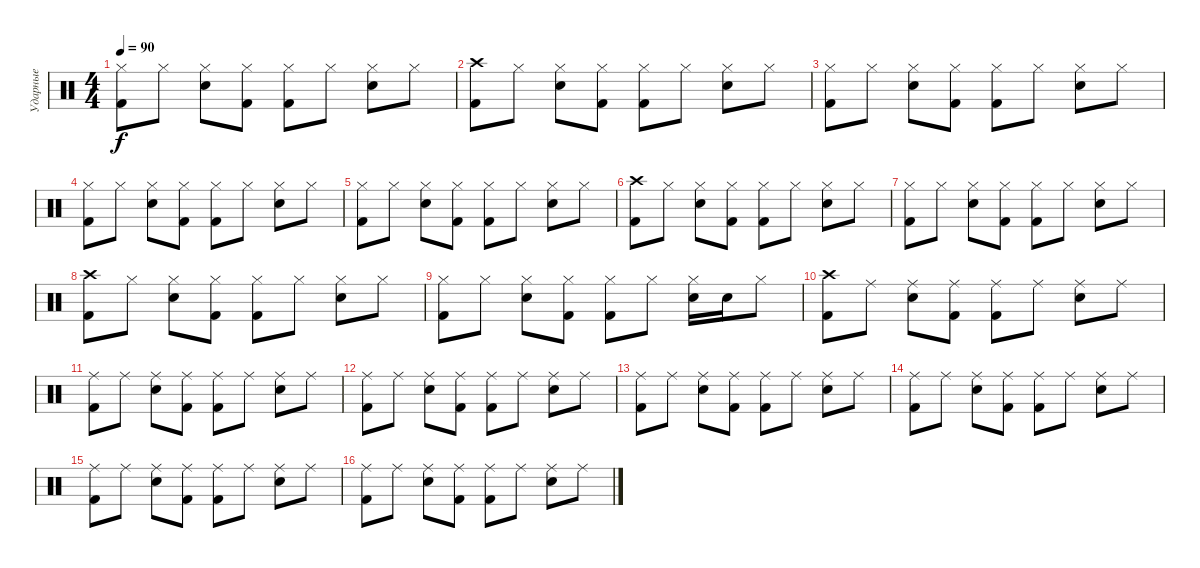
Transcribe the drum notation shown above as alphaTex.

\track ("Ударные" "Ударные") {instrument percussion}
\staff {score}
\articulation defaults
\ts (4 4)
\tempo 90
\clef neutral
\ks c
("Hi-Hat (closed)" "Kick (hit) 2").8{dy f} "Hi-Hat (closed)".8 ("Hi-Hat (closed)" "Snare (hit) 2").8 ("Hi-Hat (closed)" "Kick (hit) 2").8 ("Hi-Hat (closed)" "Kick (hit) 2").8 "Hi-Hat (closed)".8 ("Hi-Hat (closed)" "Snare (hit) 2").8 "Hi-Hat (closed)".8 |
("Crash high (hit)" "Kick (hit) 2").8 "Hi-Hat (closed)".8 ("Hi-Hat (closed)" "Snare (hit) 2").8 ("Hi-Hat (closed)" "Kick (hit) 2").8 ("Hi-Hat (closed)" "Kick (hit) 2").8 "Hi-Hat (closed)".8 ("Hi-Hat (closed)" "Snare (hit) 2").8 "Hi-Hat (closed)".8 |
("Hi-Hat (closed)" "Kick (hit) 2").8 "Hi-Hat (closed)".8 ("Hi-Hat (closed)" "Snare (hit) 2").8 ("Hi-Hat (closed)" "Kick (hit) 2").8 ("Hi-Hat (closed)" "Kick (hit) 2").8 "Hi-Hat (closed)".8 ("Hi-Hat (closed)" "Snare (hit) 2").8 "Hi-Hat (closed)".8 |
("Hi-Hat (closed)" "Kick (hit) 2").8 "Hi-Hat (closed)".8 ("Hi-Hat (closed)" "Snare (hit) 2").8 ("Hi-Hat (closed)" "Kick (hit) 2").8 ("Hi-Hat (closed)" "Kick (hit) 2").8 "Hi-Hat (closed)".8 ("Hi-Hat (closed)" "Snare (hit) 2").8 "Hi-Hat (closed)".8 |
("Hi-Hat (closed)" "Kick (hit) 2").8 "Hi-Hat (closed)".8 ("Hi-Hat (closed)" "Snare (hit) 2").8 ("Hi-Hat (closed)" "Kick (hit) 2").8 ("Hi-Hat (closed)" "Kick (hit) 2").8 "Hi-Hat (closed)".8 ("Hi-Hat (closed)" "Snare (hit) 2").8 "Hi-Hat (closed)".8 |
("Crash high (hit)" "Kick (hit) 2").8 "Hi-Hat (closed)".8 ("Hi-Hat (closed)" "Snare (hit) 2").8 ("Hi-Hat (closed)" "Kick (hit) 2").8 ("Hi-Hat (closed)" "Kick (hit) 2").8 "Hi-Hat (closed)".8 ("Hi-Hat (closed)" "Snare (hit) 2").8 "Hi-Hat (closed)".8 |
("Hi-Hat (closed)" "Kick (hit) 2").8 "Hi-Hat (closed)".8 ("Hi-Hat (closed)" "Snare (hit) 2").8 ("Hi-Hat (closed)" "Kick (hit) 2").8 ("Hi-Hat (closed)" "Kick (hit) 2").8 "Hi-Hat (closed)".8 ("Hi-Hat (closed)" "Snare (hit) 2").8 "Hi-Hat (closed)".8 |
("Crash high (hit)" "Kick (hit) 2").8 "Hi-Hat (closed)".8 ("Hi-Hat (closed)" "Snare (hit) 2").8 ("Hi-Hat (closed)" "Kick (hit) 2").8 ("Hi-Hat (closed)" "Kick (hit) 2").8 "Hi-Hat (closed)".8 ("Hi-Hat (closed)" "Snare (hit) 2").8 "Hi-Hat (closed)".8 |
("Hi-Hat (closed)" "Kick (hit) 2").8 "Hi-Hat (closed)".8 ("Hi-Hat (closed)" "Snare (hit) 2").8 ("Hi-Hat (closed)" "Kick (hit) 2").8 ("Hi-Hat (closed)" "Kick (hit) 2").8 "Hi-Hat (closed)".8 ("Hi-Hat (closed)" "Snare (hit) 2").16 "Snare (hit) 2".16 "Hi-Hat (closed)".8 |
("Crash high (hit)" "Kick (hit) 2").8 "Ride (middle)".8 ("Ride (middle)" "Snare (hit) 2").8 ("Ride (middle)" "Kick (hit) 2").8 ("Ride (middle)" "Kick (hit) 2").8 "Ride (middle)".8 ("Ride (middle)" "Snare (hit) 2").8 "Ride (middle)".8 |
("Ride (middle)" "Kick (hit) 2").8 "Ride (middle)".8 ("Ride (middle)" "Snare (hit) 2").8 ("Ride (middle)" "Kick (hit) 2").8 ("Ride (middle)" "Kick (hit) 2").8 "Ride (middle)".8 ("Ride (middle)" "Snare (hit) 2").8 "Ride (middle)".8 |
("Ride (middle)" "Kick (hit) 2").8 "Ride (middle)".8 ("Ride (middle)" "Snare (hit) 2").8 ("Ride (middle)" "Kick (hit) 2").8 ("Ride (middle)" "Kick (hit) 2").8 "Ride (middle)".8 ("Ride (middle)" "Snare (hit) 2").8 "Ride (middle)".8 |
("Ride (middle)" "Kick (hit) 2").8 "Ride (middle)".8 ("Ride (middle)" "Snare (hit) 2").8 ("Ride (middle)" "Kick (hit) 2").8 ("Ride (middle)" "Kick (hit) 2").8 "Ride (middle)".8 ("Ride (middle)" "Snare (hit) 2").8 "Ride (middle)".8 |
("Ride (middle)" "Kick (hit) 2").8 "Ride (middle)".8 ("Ride (middle)" "Snare (hit) 2").8 ("Ride (middle)" "Kick (hit) 2").8 ("Ride (middle)" "Kick (hit) 2").8 "Ride (middle)".8 ("Ride (middle)" "Snare (hit) 2").8 "Ride (middle)".8 |
("Ride (middle)" "Kick (hit) 2").8 "Ride (middle)".8 ("Ride (middle)" "Snare (hit) 2").8 ("Ride (middle)" "Kick (hit) 2").8 ("Ride (middle)" "Kick (hit) 2").8 "Ride (middle)".8 ("Ride (middle)" "Snare (hit) 2").8 "Ride (middle)".8 |
("Ride (middle)" "Kick (hit) 2").8 "Ride (middle)".8 ("Ride (middle)" "Snare (hit) 2").8 ("Ride (middle)" "Kick (hit) 2").8 ("Ride (middle)" "Kick (hit) 2").8 "Ride (middle)".8 ("Ride (middle)" "Snare (hit) 2").8 "Ride (middle)".8
